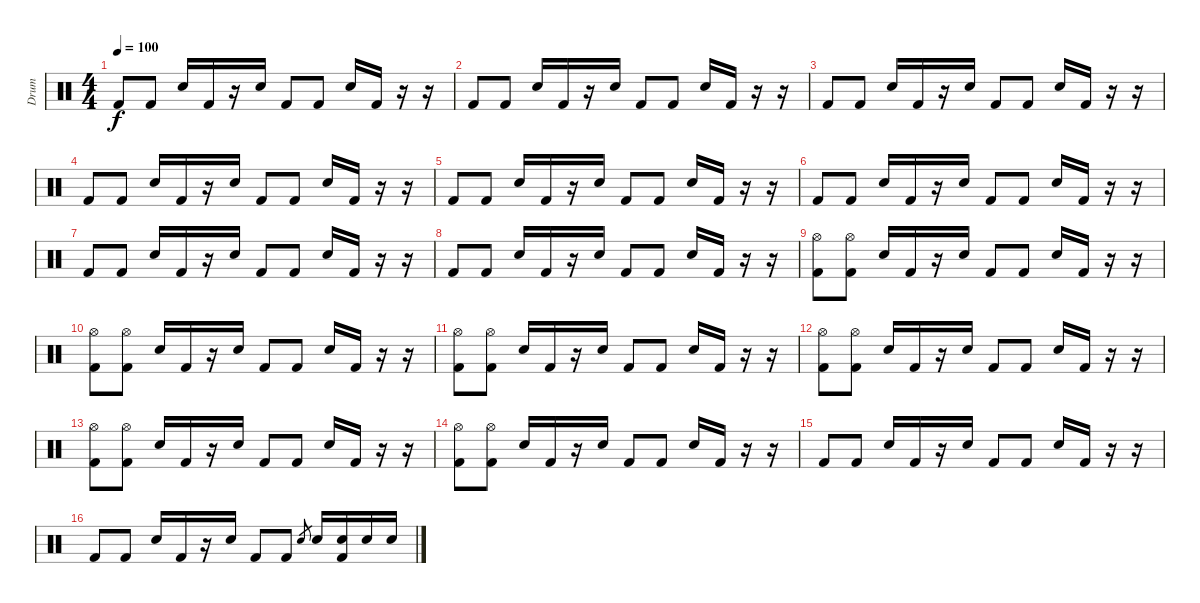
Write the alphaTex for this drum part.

\track ("Drum" "Drum") {instrument percussion}
\staff {score}
\articulation defaults
\ts (4 4)
\tempo 100
\clef neutral
\ks c "Kick (hit) 2".8{dy f} "Kick (hit) 2".8 "Electric Snare (hit)".16 "Kick (hit) 2".16
r.16 "Electric Snare (hit)".16 "Kick (hit) 2".8 "Kick (hit) 2".8 "Electric Snare (hit)".16 "Kick (hit) 2".16 r.16 r.16 |
"Kick (hit) 2".8 "Kick (hit) 2".8 "Electric Snare (hit)".16 "Kick (hit) 2".16 r.16 "Electric Snare (hit)".16 "Kick (hit) 2".8 "Kick (hit) 2".8 "Electric Snare (hit)".16 "Kick (hit) 2".16 r.16 r.16 |
"Kick (hit) 2".8 "Kick (hit) 2".8 "Electric Snare (hit)".16 "Kick (hit) 2".16 r.16 "Electric Snare (hit)".16 "Kick (hit) 2".8 "Kick (hit) 2".8 "Electric Snare (hit)".16 "Kick (hit) 2".16 r.16 r.16 |
"Kick (hit) 2".8 "Kick (hit) 2".8 "Electric Snare (hit)".16 "Kick (hit) 2".16 r.16 "Electric Snare (hit)".16 "Kick (hit) 2".8 "Kick (hit) 2".8 "Electric Snare (hit)".16 "Kick (hit) 2".16 r.16 r.16 |
"Kick (hit) 2".8 "Kick (hit) 2".8 "Electric Snare (hit)".16 "Kick (hit) 2".16 r.16 "Electric Snare (hit)".16 "Kick (hit) 2".8 "Kick (hit) 2".8 "Electric Snare (hit)".16 "Kick (hit) 2".16 r.16 r.16 |
"Kick (hit) 2".8 "Kick (hit) 2".8 "Electric Snare (hit)".16 "Kick (hit) 2".16 r.16 "Electric Snare (hit)".16 "Kick (hit) 2".8 "Kick (hit) 2".8 "Electric Snare (hit)".16 "Kick (hit) 2".16 r.16 r.16 |
"Kick (hit) 2".8 "Kick (hit) 2".8 "Electric Snare (hit)".16 "Kick (hit) 2".16 r.16 "Electric Snare (hit)".16 "Kick (hit) 2".8 "Kick (hit) 2".8 "Electric Snare (hit)".16 "Kick (hit) 2".16 r.16 r.16 |
"Kick (hit) 2".8 "Kick (hit) 2".8 "Electric Snare (hit)".16 "Kick (hit) 2".16 r.16 "Electric Snare (hit)".16 "Kick (hit) 2".8 "Kick (hit) 2".8 "Electric Snare (hit)".16 "Kick (hit) 2".16 r.16 r.16 |
("Hi-Hat (open)" "Kick (hit) 2").8 ("Hi-Hat (open)" "Kick (hit) 2").8 "Electric Snare (hit)".16 "Kick (hit) 2".16 r.16 "Electric Snare (hit)".16 "Kick (hit) 2".8 "Kick (hit) 2".8 "Electric Snare (hit)".16 "Kick (hit) 2".16 r.16 r.16 |
("Hi-Hat (open)" "Kick (hit) 2").8 ("Hi-Hat (open)" "Kick (hit) 2").8 "Electric Snare (hit)".16 "Kick (hit) 2".16 r.16 "Electric Snare (hit)".16 "Kick (hit) 2".8 "Kick (hit) 2".8 "Electric Snare (hit)".16 "Kick (hit) 2".16 r.16 r.16 |
("Hi-Hat (open)" "Kick (hit) 2").8 ("Hi-Hat (open)" "Kick (hit) 2").8 "Electric Snare (hit)".16 "Kick (hit) 2".16 r.16 "Electric Snare (hit)".16 "Kick (hit) 2".8 "Kick (hit) 2".8 "Electric Snare (hit)".16 "Kick (hit) 2".16 r.16 r.16 |
("Hi-Hat (open)" "Kick (hit) 2").8 ("Hi-Hat (open)" "Kick (hit) 2").8 "Electric Snare (hit)".16 "Kick (hit) 2".16 r.16 "Electric Snare (hit)".16 "Kick (hit) 2".8 "Kick (hit) 2".8 "Electric Snare (hit)".16 "Kick (hit) 2".16 r.16 r.16 |
("Hi-Hat (open)" "Kick (hit) 2").8 ("Hi-Hat (open)" "Kick (hit) 2").8 "Electric Snare (hit)".16 "Kick (hit) 2".16 r.16 "Electric Snare (hit)".16 "Kick (hit) 2".8 "Kick (hit) 2".8 "Electric Snare (hit)".16 "Kick (hit) 2".16 r.16 r.16 |
("Hi-Hat (open)" "Kick (hit) 2").8 ("Hi-Hat (open)" "Kick (hit) 2").8 "Electric Snare (hit)".16 "Kick (hit) 2".16 r.16 "Electric Snare (hit)".16 "Kick (hit) 2".8 "Kick (hit) 2".8 "Electric Snare (hit)".16 "Kick (hit) 2".16 r.16 r.16 |
"Kick (hit) 2".8 "Kick (hit) 2".8 "Electric Snare (hit)".16 "Kick (hit) 2".16 r.16 "Electric Snare (hit)".16 "Kick (hit) 2".8 "Kick (hit) 2".8 "Electric Snare (hit)".16 "Kick (hit) 2".16 r.16 r.16 |
"Kick (hit) 2".8 "Kick (hit) 2".8 "Electric Snare (hit)".16 "Kick (hit) 2".16 r.16 "Electric Snare (hit)".16 "Kick (hit) 2".8 "Kick (hit) 2".8 "Electric Snare (hit)".8{gr} "Electric Snare (hit)".16 ("Electric Snare (hit)" "Kick (hit) 2").16 "Electric Snare (hit)".16 "Electric Snare (hit)".16
